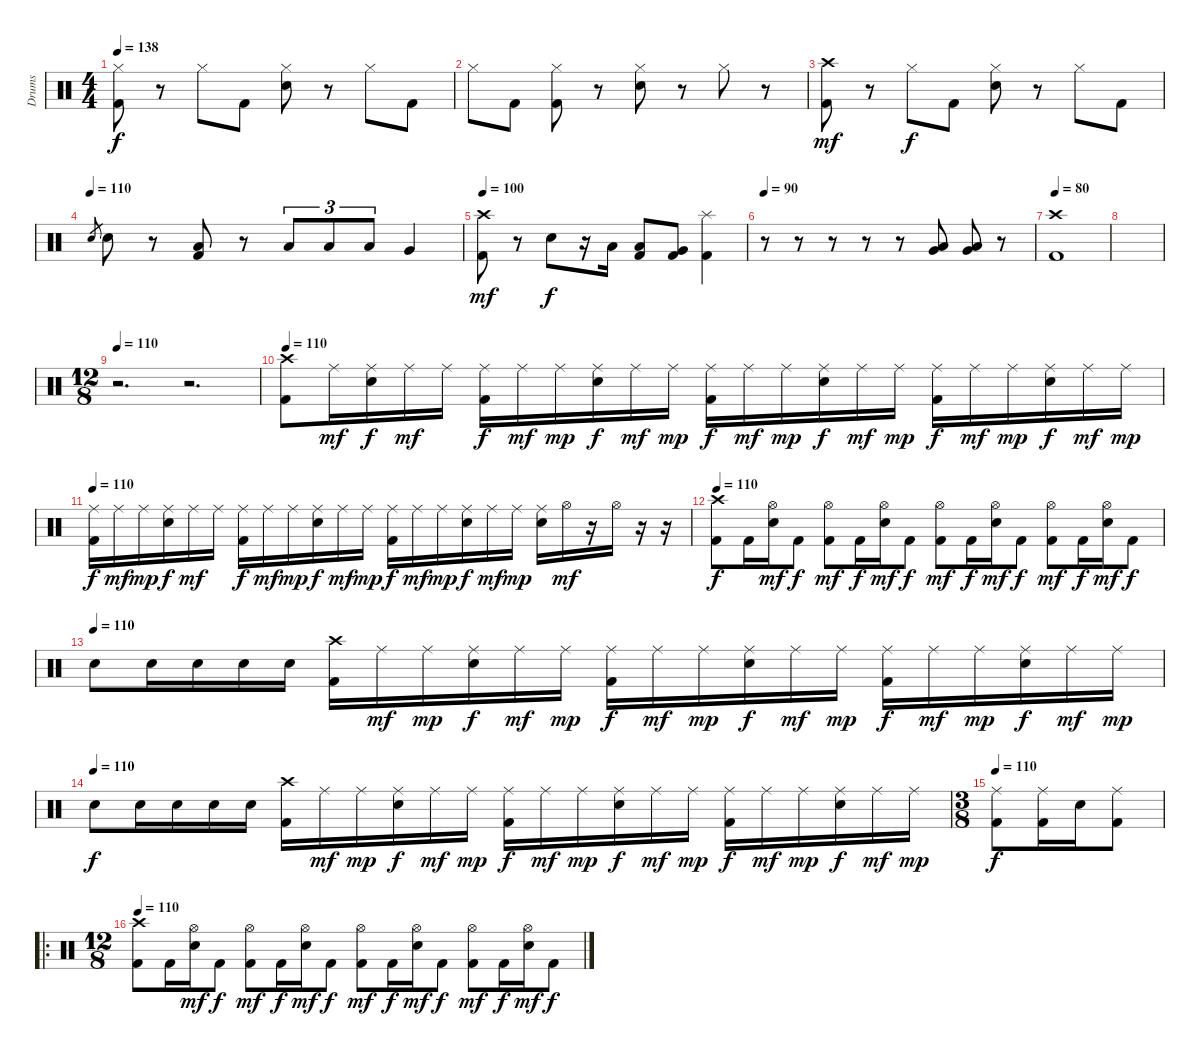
\track ("Drums" "Drums") {instrument percussion}
\staff {score}
\articulation defaults
\ts (4 4)
\tempo 138
\clef neutral
\ks c
("Hi-Hat (closed)" "Kick (hit) 2").8{dy f} r.8 "Hi-Hat (closed)".8 "Kick (hit) 2".8 ("Hi-Hat (closed)" "Electric Snare (hit)").8 r.8 "Hi-Hat (closed)".8 "Kick (hit) 2".8 |
"Hi-Hat (closed)".8 "Kick (hit) 2".8 ("Hi-Hat (closed)" "Kick (hit) 2").8 r.8 ("Hi-Hat (closed)" "Electric Snare (hit)").8 r.8 "Hi-Hat (closed)".8 r.8 |
("Crash high (hit)" "Kick (hit) 2").8{dy mf} r.8 "Hi-Hat (closed)".8{dy f} "Kick (hit) 2".8 ("Hi-Hat (closed)" "Electric Snare (hit)").8 r.8 "Hi-Hat (closed)".8 "Kick (hit) 2".8 |
\tempo (110)
"Electric Snare (hit)".8{gr} "Electric Snare (hit)".8 r.8 ("Low Tom (hit)" "Kick (hit) 2").8 r.8 "Low Tom (hit)".8{tu (3 2)} "Low Tom (hit)".8{tu (3 2)} "Low Tom (hit)".8{tu (3 2)} "Very Low Tom (hit)".4 |
\tempo 100
("Crash high (hit)" "Kick (hit) 2").8{dy mf} r.8 "Electric Snare (hit)".8{dy f} r.16 "Low Tom (hit)".16 ("Low Tom (hit)" "Kick (hit) 2").8 ("Very Low Tom (hit)" "Kick (hit) 2").8 ("Splash (hit)" "Kick (hit) 2").4 |
\tempo 90
r.8 r.8 r.8 r.8 r.8 ("Low Tom (hit)" "Very Low Tom (hit)").8 ("Low Tom (hit)" "Very Low Tom (hit)").8 r.8 |
\tempo 80
("Crash high (hit)" "Kick (hit) 2").1 |
|
\ts (12 8)
\tempo 110
r.2{d} r.2{d} |
\tempo 110
("Crash high (hit)" "Kick (hit) 2").8 "Ride (middle)".16{dy mf} ("Ride (middle)" "Electric Snare (hit)").16{dy f} "Ride (middle)".16{dy mf} "Ride (middle)".16 ("Ride (middle)" "Kick (hit) 2").16{dy f} "Ride (middle)".16{dy mf} "Ride (middle)".16{dy mp} ("Ride (middle)" "Electric Snare (hit)").16{dy f} "Ride (middle)".16{dy mf} "Ride (middle)".16{dy mp} ("Ride (middle)" "Kick (hit) 2").16{dy f} "Ride (middle)".16{dy mf} "Ride (middle)".16{dy mp} ("Ride (middle)" "Electric Snare (hit)").16{dy f} "Ride (middle)".16{dy mf} "Ride (middle)".16{dy mp} ("Ride (middle)" "Kick (hit) 2").16{dy f} "Ride (middle)".16{dy mf} "Ride (middle)".16{dy mp} ("Ride (middle)" "Electric Snare (hit)").16{dy f} "Ride (middle)".16{dy mf} "Ride (middle)".16{dy mp} |
\tempo 110
("Ride (middle)" "Kick (hit) 2").16{dy f} "Ride (middle)".16{dy mf} "Ride (middle)".16{dy mp} ("Ride (middle)" "Electric Snare (hit)").16{dy f} "Ride (middle)".16{dy mf} "Ride (middle)".16 ("Ride (middle)" "Kick (hit) 2").16{dy f} "Ride (middle)".16{dy mf} "Ride (middle)".16{dy mp} ("Ride (middle)" "Electric Snare (hit)").16{dy f} "Ride (middle)".16{dy mf} "Ride (middle)".16{dy mp} ("Ride (middle)" "Kick (hit) 2").16{dy f} "Ride (middle)".16{dy mf} "Ride (middle)".16{dy mp} ("Ride (middle)" "Electric Snare (hit)").16{dy f} "Ride (middle)".16{dy mf} "Ride (middle)".16{dy mp} ("Ride (middle)" "Electric Snare (hit)").16 "Hi-Hat (open)".16{dy mf} r.16 "Hi-Hat (open)".16 r.16 r.16 |
\tempo 110
("Crash high (hit)" "Kick (hit) 2").8{dy f} "Kick (hit) 2".16 ("Hi-Hat (open)" "Electric Snare (hit)").16{dy mf} "Kick (hit) 2".8{dy f} ("Hi-Hat (open)" "Kick (hit) 2").8{dy mf} "Kick (hit) 2".16{dy f} ("Hi-Hat (open)" "Electric Snare (hit)").16{dy mf} "Kick (hit) 2".8{dy f} ("Hi-Hat (open)" "Kick (hit) 2").8{dy mf} "Kick (hit) 2".16{dy f} ("Hi-Hat (open)" "Electric Snare (hit)").16{dy mf} "Kick (hit) 2".8{dy f} ("Hi-Hat (open)" "Kick (hit) 2").8{dy mf} "Kick (hit) 2".16{dy f} ("Hi-Hat (open)" "Electric Snare (hit)").16{dy mf} "Kick (hit) 2".8{dy f} |
\tempo (110)
"Electric Snare (hit)".8 "Electric Snare (hit)".16 "Electric Snare (hit)".16 "Electric Snare (hit)".16 "Electric Snare (hit)".16 ("Crash high (hit)" "Kick (hit) 2").16 "Ride (middle)".16{dy mf} "Ride (middle)".16{dy mp} ("Ride (middle)" "Electric Snare (hit)").16{dy f} "Ride (middle)".16{dy mf} "Ride (middle)".16{dy mp} ("Ride (middle)" "Kick (hit) 2").16{dy f} "Ride (middle)".16{dy mf} "Ride (middle)".16{dy mp} ("Ride (middle)" "Electric Snare (hit)").16{dy f} "Ride (middle)".16{dy mf} "Ride (middle)".16{dy mp} ("Ride (middle)" "Kick (hit) 2").16{dy f} "Ride (middle)".16{dy mf} "Ride (middle)".16{dy mp} ("Ride (middle)" "Electric Snare (hit)").16{dy f} "Ride (middle)".16{dy mf} "Ride (middle)".16{dy mp} |
\tempo (110)
"Electric Snare (hit)".8{dy f} "Electric Snare (hit)".16 "Electric Snare (hit)".16 "Electric Snare (hit)".16 "Electric Snare (hit)".16 ("Crash high (hit)" "Kick (hit) 2").16 "Ride (middle)".16{dy mf} "Ride (middle)".16{dy mp} ("Ride (middle)" "Electric Snare (hit)").16{dy f} "Ride (middle)".16{dy mf} "Ride (middle)".16{dy mp} ("Ride (middle)" "Kick (hit) 2").16{dy f} "Ride (middle)".16{dy mf} "Ride (middle)".16{dy mp} ("Ride (middle)" "Electric Snare (hit)").16{dy f} "Ride (middle)".16{dy mf} "Ride (middle)".16{dy mp} ("Ride (middle)" "Kick (hit) 2").16{dy f} "Ride (middle)".16{dy mf} "Ride (middle)".16{dy mp} ("Ride (middle)" "Electric Snare (hit)").16{dy f} "Ride (middle)".16{dy mf} "Ride (middle)".16{dy mp} |
\ts (3 8)
\tempo 110
("Ride (middle)" "Kick (hit) 2").8{dy f} ("Ride (middle)" "Kick (hit) 2").16 "Electric Snare (hit)".16 ("Ride (middle)" "Kick (hit) 2").8 |
\ro
\ts (12 8)
\tempo 110
("Crash high (hit)" "Kick (hit) 2").8 "Kick (hit) 2".16 ("Hi-Hat (open)" "Electric Snare (hit)").16{dy mf} "Kick (hit) 2".8{dy f} ("Hi-Hat (open)" "Kick (hit) 2").8{dy mf} "Kick (hit) 2".16{dy f} ("Hi-Hat (open)" "Electric Snare (hit)").16{dy mf} "Kick (hit) 2".8{dy f} ("Hi-Hat (open)" "Kick (hit) 2").8{dy mf} "Kick (hit) 2".16{dy f} ("Hi-Hat (open)" "Electric Snare (hit)").16{dy mf} "Kick (hit) 2".8{dy f} ("Hi-Hat (open)" "Kick (hit) 2").8{dy mf} "Kick (hit) 2".16{dy f} ("Hi-Hat (open)" "Electric Snare (hit)").16{dy mf} "Kick (hit) 2".8{dy f}
